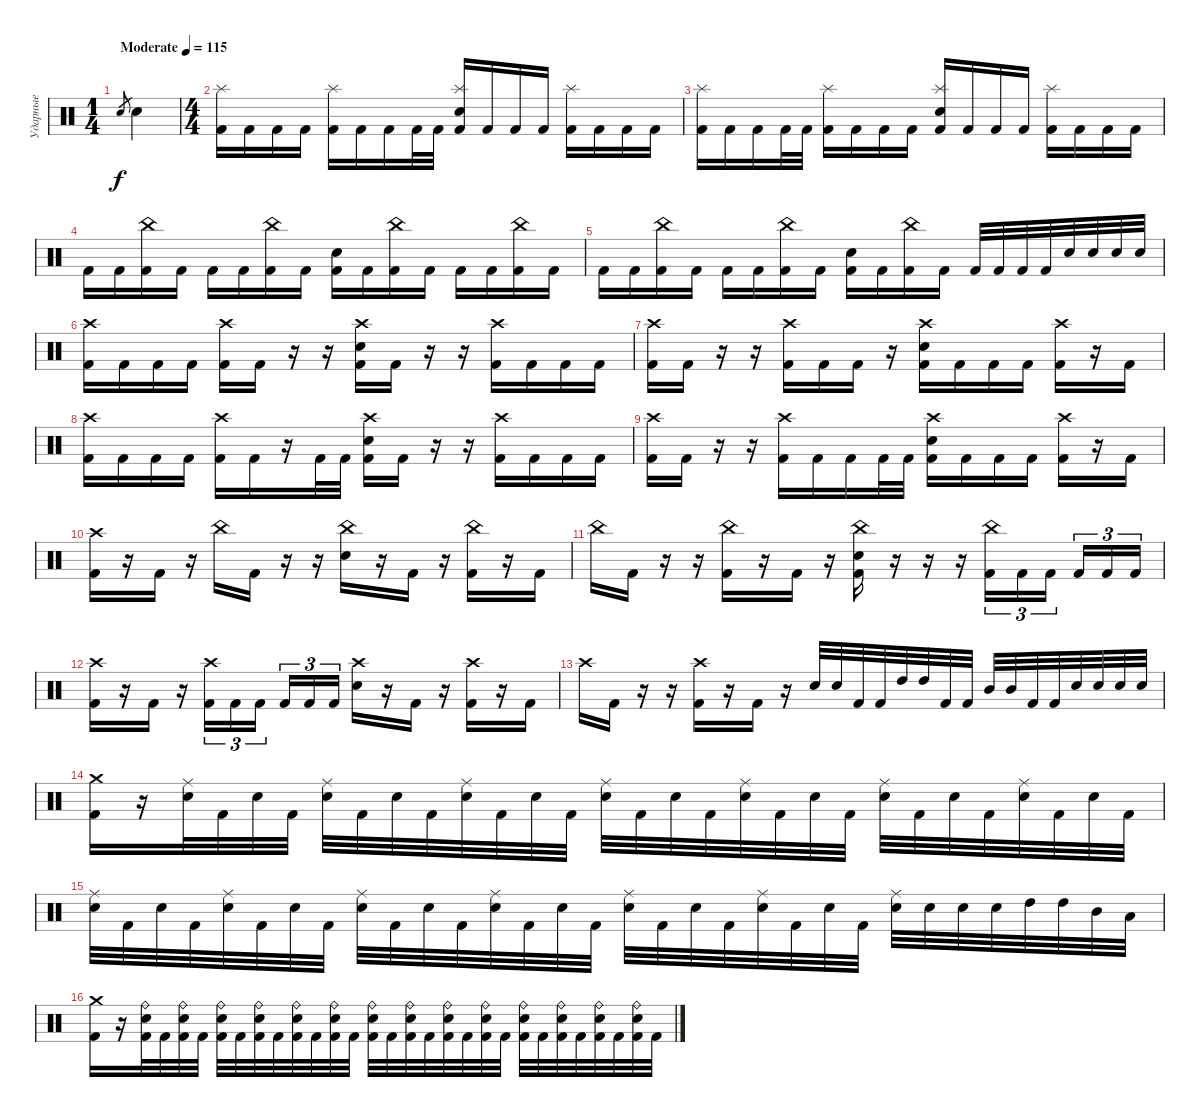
\track ("Ударные" "Ударные") {instrument percussion}
\staff {score}
\articulation defaults
\ts (1 4)
\tempo (115 "Moderate")
\clef neutral
\ks c "Electric Snare (hit)".8{gr dy f} "Electric Snare (hit)".4
|
\ts (4 4)
("Splash (hit)" "Kick (hit) 2").16 "Kick (hit) 2".16 "Kick (hit) 2".16 "Kick (hit) 2".16 ("Splash (hit)" "Kick (hit) 2").16 "Kick (hit) 2".16 "Kick (hit) 2".16 "Kick (hit) 2".32 "Kick (hit) 2".32 ("Splash (hit)" "Electric Snare (hit)" "Kick (hit) 2").16 "Kick (hit) 2".16 "Kick (hit) 2".16 "Kick (hit) 2".16 ("Splash (hit)" "Kick (hit) 2").16 "Kick (hit) 2".16 "Kick (hit) 2".16 "Kick (hit) 2".16 |
("Splash (hit)" "Kick (hit) 2").16 "Kick (hit) 2".16 "Kick (hit) 2".16 "Kick (hit) 2".32 "Kick (hit) 2".32 ("Splash (hit)" "Kick (hit) 2").16 "Kick (hit) 2".16 "Kick (hit) 2".16 "Kick (hit) 2".16 ("Splash (hit)" "Electric Snare (hit)" "Kick (hit) 2").16 "Kick (hit) 2".16 "Kick (hit) 2".16 "Kick (hit) 2".16 ("Splash (hit)" "Kick (hit) 2").16 "Kick (hit) 2".16 "Kick (hit) 2".16 "Kick (hit) 2".16 |
"Kick (hit) 2".16 "Kick (hit) 2".16 ("China (hit)" "Kick (hit) 2").16 "Kick (hit) 2".16 "Kick (hit) 2".16 "Kick (hit) 2".16 ("China (hit)" "Kick (hit) 2").16 "Kick (hit) 2".16 ("Electric Snare (hit)" "Kick (hit) 2").16 "Kick (hit) 2".16 ("China (hit)" "Kick (hit) 2").16 "Kick (hit) 2".16 "Kick (hit) 2".16 "Kick (hit) 2".16 ("China (hit)" "Kick (hit) 2").16 "Kick (hit) 2".16 |
"Kick (hit) 2".16 "Kick (hit) 2".16 ("China (hit)" "Kick (hit) 2").16 "Kick (hit) 2".16 "Kick (hit) 2".16 "Kick (hit) 2".16 ("China (hit)" "Kick (hit) 2").16 "Kick (hit) 2".16 ("Electric Snare (hit)" "Kick (hit) 2").16 "Kick (hit) 2".16 ("China (hit)" "Kick (hit) 2").16 "Kick (hit) 2".16 "Kick (hit) 2".32 "Kick (hit) 2".32 "Kick (hit) 2".32 "Kick (hit) 2".32 "Electric Snare (hit)".32 "Electric Snare (hit)".32 "Electric Snare (hit)".32 "Electric Snare (hit)".32 |
("Crash high (hit)" "Kick (hit) 2").16 "Kick (hit) 2".16 "Kick (hit) 2".16 "Kick (hit) 2".16 ("Crash high (hit)" "Kick (hit) 2").16 "Kick (hit) 2".16 r.16 r.16 ("Crash high (hit)" "Electric Snare (hit)" "Kick (hit) 2").16 "Kick (hit) 2".16 r.16 r.16 ("Crash high (hit)" "Kick (hit) 2").16 "Kick (hit) 2".16 "Kick (hit) 2".16 "Kick (hit) 2".16 |
("Crash high (hit)" "Kick (hit) 2").16 "Kick (hit) 2".16 r.16 r.16 ("Crash high (hit)" "Kick (hit) 2").16 "Kick (hit) 2".16 "Kick (hit) 2".16 r.16 ("Crash high (hit)" "Electric Snare (hit)" "Kick (hit) 2").16 "Kick (hit) 2".16 "Kick (hit) 2".16 "Kick (hit) 2".16 ("Crash high (hit)" "Kick (hit) 2").16 r.16 "Kick (hit) 2".16 |
("Crash high (hit)" "Kick (hit) 2").16 "Kick (hit) 2".16 "Kick (hit) 2".16 "Kick (hit) 2".16 ("Crash high (hit)" "Kick (hit) 2").16 "Kick (hit) 2".16 r.16 "Kick (hit) 2".32 "Kick (hit) 2".32 ("Crash high (hit)" "Electric Snare (hit)" "Kick (hit) 2").16 "Kick (hit) 2".16 r.16 r.16 ("Crash high (hit)" "Kick (hit) 2").16 "Kick (hit) 2".16 "Kick (hit) 2".16 "Kick (hit) 2".16 |
("Crash high (hit)" "Kick (hit) 2").16 "Kick (hit) 2".16 r.16 r.16 ("Crash high (hit)" "Kick (hit) 2").16 "Kick (hit) 2".16 "Kick (hit) 2".16 "Kick (hit) 2".32 "Kick (hit) 2".32 ("Crash high (hit)" "Electric Snare (hit)" "Kick (hit) 2").16 "Kick (hit) 2".16 "Kick (hit) 2".16 "Kick (hit) 2".16 ("Crash high (hit)" "Kick (hit) 2").16 r.16 "Kick (hit) 2".16 |
("Crash high (hit)" "Kick (hit) 2").16 r.16 "Kick (hit) 2".16 r.16 "China (hit)".16 "Kick (hit) 2".16 r.16 r.16 ("China (hit)" "Electric Snare (hit)").16 r.16 "Kick (hit) 2".16 r.16 ("China (hit)" "Kick (hit) 2").16 r.16 "Kick (hit) 2".16 |
"China (hit)".16 "Kick (hit) 2".16 r.16 r.16 ("China (hit)" "Kick (hit) 2").16 r.16 "Kick (hit) 2".16 r.16 ("China (hit)" "Electric Snare (hit)" "Kick (hit) 2").16 r.16 r.16 r.16 ("China (hit)" "Kick (hit) 2").16{tu (3 2)} "Kick (hit) 2".16{tu (3 2)} "Kick (hit) 2".16{tu (3 2) beam splitsecondary} "Kick (hit) 2".16{tu (3 2)} "Kick (hit) 2".16{tu (3 2)} "Kick (hit) 2".16{tu (3 2)} |
("Crash high (hit)" "Kick (hit) 2").16 r.16 "Kick (hit) 2".16 r.16 ("Crash high (hit)" "Kick (hit) 2").16{tu (3 2)} "Kick (hit) 2".16{tu (3 2)} "Kick (hit) 2".16{tu (3 2) beam splitsecondary} "Kick (hit) 2".16{tu (3 2)} "Kick (hit) 2".16{tu (3 2)} "Kick (hit) 2".16{tu (3 2)} ("Crash high (hit)" "Electric Snare (hit)").16 r.16 "Kick (hit) 2".16 r.16 ("Crash high (hit)" "Kick (hit) 2").16 r.16 "Kick (hit) 2".16 |
"Crash high (hit)".16 "Kick (hit) 2".16 r.16 r.16 ("Crash high (hit)" "Kick (hit) 2").16 r.16 "Kick (hit) 2".16 r.16 "Electric Snare (hit)".32 "Electric Snare (hit)".32 "Kick (hit) 2".32 "Kick (hit) 2".32 "High Tom (hit)".32 "High Tom (hit)".32 "Kick (hit) 2".32 "Kick (hit) 2".32 "Mid Tom (hit)".32 "Mid Tom (hit)".32 "Kick (hit) 2".32 "Kick (hit) 2".32 "Electric Snare (hit)".32 "Electric Snare (hit)".32 "Electric Snare (hit)".32 "Electric Snare (hit)".32 |
("Crash medium (hit)" "Kick (hit) 2").16 r.16 ("Ride (middle)" "Electric Snare (hit)").32 "Kick (hit) 2".32 "Electric Snare (hit)".32 "Kick (hit) 2".32 ("Ride (middle)" "Electric Snare (hit)").32 "Kick (hit) 2".32 "Electric Snare (hit)".32 "Kick (hit) 2".32 ("Ride (middle)" "Electric Snare (hit)").32 "Kick (hit) 2".32 "Electric Snare (hit)".32 "Kick (hit) 2".32 ("Ride (middle)" "Electric Snare (hit)").32 "Kick (hit) 2".32 "Electric Snare (hit)".32 "Kick (hit) 2".32 ("Ride (middle)" "Electric Snare (hit)").32 "Kick (hit) 2".32 "Electric Snare (hit)".32 "Kick (hit) 2".32 ("Ride (middle)" "Electric Snare (hit)").32 "Kick (hit) 2".32 "Electric Snare (hit)".32 "Kick (hit) 2".32 ("Ride (middle)" "Electric Snare (hit)").32 "Kick (hit) 2".32 "Electric Snare (hit)".32 "Kick (hit) 2".32 |
("Ride (middle)" "Electric Snare (hit)").32 "Kick (hit) 2".32 "Electric Snare (hit)".32 "Kick (hit) 2".32 ("Ride (middle)" "Electric Snare (hit)").32 "Kick (hit) 2".32 "Electric Snare (hit)".32 "Kick (hit) 2".32 ("Ride (middle)" "Electric Snare (hit)").32 "Kick (hit) 2".32 "Electric Snare (hit)".32 "Kick (hit) 2".32 ("Ride (middle)" "Electric Snare (hit)").32 "Kick (hit) 2".32 "Electric Snare (hit)".32 "Kick (hit) 2".32 ("Ride (middle)" "Electric Snare (hit)").32 "Kick (hit) 2".32 "Electric Snare (hit)".32 "Kick (hit) 2".32 ("Ride (middle)" "Electric Snare (hit)").32 "Kick (hit) 2".32 "Electric Snare (hit)".32 "Kick (hit) 2".32 ("Ride (middle)" "Electric Snare (hit)").32 "Electric Snare (hit)".32 "Electric Snare (hit)".32 "Electric Snare (hit)".32 "High Tom (hit)".32 "High Tom (hit)".32 "Mid Tom (hit)".32 "Low Tom (hit)".32 |
("Crash medium (hit)" "Kick (hit) 2").16 r.16 ("Ride (bell)" "Electric Snare (hit)" "Kick (hit) 2").32 "Kick (hit) 2".32 ("Ride (bell)" "Electric Snare (hit)" "Kick (hit) 2").32 "Kick (hit) 2".32 ("Ride (bell)" "Electric Snare (hit)" "Kick (hit) 2").32 "Kick (hit) 2".32 ("Ride (bell)" "Electric Snare (hit)" "Kick (hit) 2").32 "Kick (hit) 2".32 ("Ride (bell)" "Electric Snare (hit)" "Kick (hit) 2").32 "Kick (hit) 2".32 ("Ride (bell)" "Electric Snare (hit)" "Kick (hit) 2").32 "Kick (hit) 2".32 ("Ride (bell)" "Electric Snare (hit)" "Kick (hit) 2").32 "Kick (hit) 2".32 ("Ride (bell)" "Electric Snare (hit)" "Kick (hit) 2").32 "Kick (hit) 2".32 ("Ride (bell)" "Electric Snare (hit)" "Kick (hit) 2").32 "Kick (hit) 2".32 ("Ride (bell)" "Electric Snare (hit)" "Kick (hit) 2").32 "Kick (hit) 2".32 ("Ride (bell)" "Electric Snare (hit)" "Kick (hit) 2").32 "Kick (hit) 2".32 ("Ride (bell)" "Electric Snare (hit)" "Kick (hit) 2").32 "Kick (hit) 2".32 ("Ride (bell)" "Electric Snare (hit)" "Kick (hit) 2").32 "Kick (hit) 2".32 ("Ride (bell)" "Electric Snare (hit)" "Kick (hit) 2").32 "Kick (hit) 2".32
